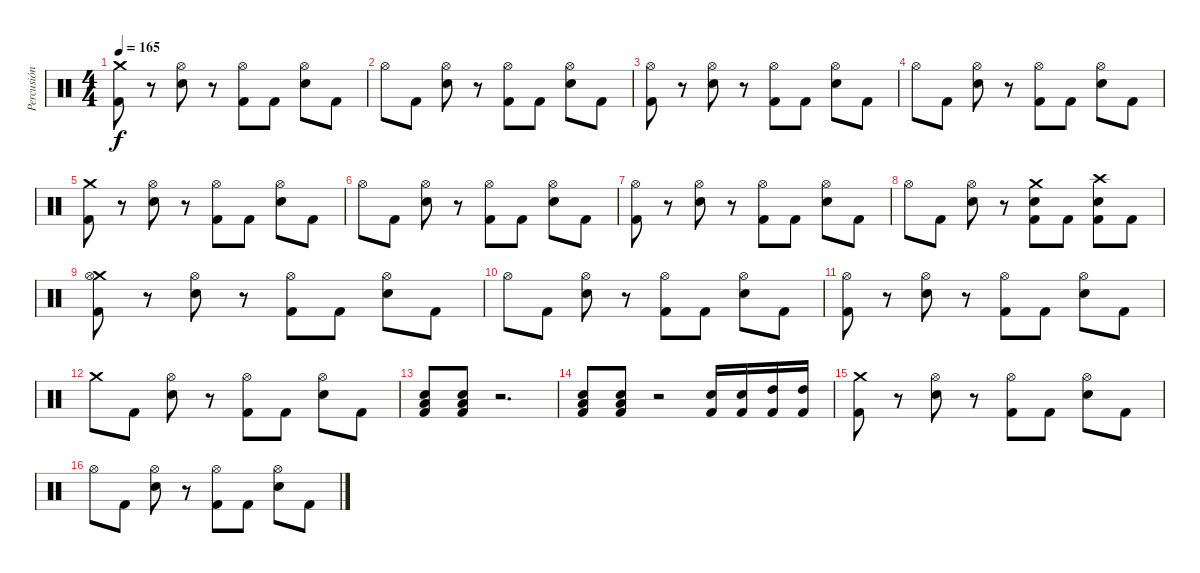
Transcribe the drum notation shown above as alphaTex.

\track ("Percusión" "Percusión") {instrument percussion}
\staff {score}
\articulation defaults
\ts (4 4)
\tempo 165
\clef neutral
\ks c
("Crash medium (hit)" "Kick (hit) 2").8{dy f} r.8 ("Hi-Hat (open)" "Electric Snare (hit)").8 r.8 ("Hi-Hat (open)" "Kick (hit) 2").8 "Kick (hit) 2".8 ("Hi-Hat (open)" "Electric Snare (hit)").8 "Kick (hit) 2".8 |
"Hi-Hat (open)".8 "Kick (hit) 2".8 ("Hi-Hat (open)" "Electric Snare (hit)").8 r.8 ("Hi-Hat (open)" "Kick (hit) 2").8 "Kick (hit) 2".8 ("Hi-Hat (open)" "Electric Snare (hit)").8 "Kick (hit) 2".8 |
("Hi-Hat (open)" "Kick (hit) 2").8 r.8 ("Hi-Hat (open)" "Electric Snare (hit)").8 r.8 ("Hi-Hat (open)" "Kick (hit) 2").8 "Kick (hit) 2".8 ("Hi-Hat (open)" "Electric Snare (hit)").8 "Kick (hit) 2".8 |
"Hi-Hat (open)".8 "Kick (hit) 2".8 ("Hi-Hat (open)" "Electric Snare (hit)").8 r.8 ("Hi-Hat (open)" "Kick (hit) 2").8 "Kick (hit) 2".8 ("Hi-Hat (open)" "Electric Snare (hit)").8 "Kick (hit) 2".8 |
("Crash medium (hit)" "Kick (hit) 2").8 r.8 ("Hi-Hat (open)" "Electric Snare (hit)").8 r.8 ("Hi-Hat (open)" "Kick (hit) 2").8 "Kick (hit) 2".8 ("Hi-Hat (open)" "Electric Snare (hit)").8 "Kick (hit) 2".8 |
"Hi-Hat (open)".8 "Kick (hit) 2".8 ("Hi-Hat (open)" "Electric Snare (hit)").8 r.8 ("Hi-Hat (open)" "Kick (hit) 2").8 "Kick (hit) 2".8 ("Hi-Hat (open)" "Electric Snare (hit)").8 "Kick (hit) 2".8 |
("Hi-Hat (open)" "Kick (hit) 2").8 r.8 ("Hi-Hat (open)" "Electric Snare (hit)").8 r.8 ("Hi-Hat (open)" "Kick (hit) 2").8 "Kick (hit) 2".8 ("Hi-Hat (open)" "Electric Snare (hit)").8 "Kick (hit) 2".8 |
"Hi-Hat (open)".8 "Kick (hit) 2".8 ("Hi-Hat (open)" "Electric Snare (hit)").8 r.8 ("Crash medium (hit)" "Electric Snare (hit)" "Kick (hit) 2").8 "Kick (hit) 2".8 ("Crash high (hit)" "Electric Snare (hit)" "Kick (hit) 2").8 "Kick (hit) 2".8 |
("Crash medium (hit)" "Hi-Hat (open)" "Kick (hit) 2").8 r.8 ("Hi-Hat (open)" "Electric Snare (hit)").8 r.8 ("Hi-Hat (open)" "Kick (hit) 2").8 "Kick (hit) 2".8 ("Hi-Hat (open)" "Electric Snare (hit)").8 "Kick (hit) 2".8 |
"Hi-Hat (open)".8 "Kick (hit) 2".8 ("Hi-Hat (open)" "Electric Snare (hit)").8 r.8 ("Hi-Hat (open)" "Kick (hit) 2").8 "Kick (hit) 2".8 ("Hi-Hat (open)" "Electric Snare (hit)").8 "Kick (hit) 2".8 |
("Hi-Hat (open)" "Kick (hit) 2").8 r.8 ("Hi-Hat (open)" "Electric Snare (hit)").8 r.8 ("Hi-Hat (open)" "Kick (hit) 2").8 "Kick (hit) 2".8 ("Hi-Hat (open)" "Electric Snare (hit)").8 "Kick (hit) 2".8 |
"Crash medium (hit)".8 "Kick (hit) 2".8 ("Hi-Hat (open)" "Electric Snare (hit)").8 r.8 ("Hi-Hat (open)" "Kick (hit) 2").8 "Kick (hit) 2".8 ("Hi-Hat (open)" "Electric Snare (hit)").8 "Kick (hit) 2".8 |
("Low Tom (hit)" "Electric Snare (hit)" "Kick (hit) 2").8 ("Low Tom (hit)" "Electric Snare (hit)" "Kick (hit) 2").8 r.2{d} |
("Low Tom (hit)" "Electric Snare (hit)" "Kick (hit) 2").8 ("Low Tom (hit)" "Electric Snare (hit)" "Kick (hit) 2").8 r.2 ("Electric Snare (hit)" "Kick (hit) 2").16 ("Electric Snare (hit)" "Kick (hit) 2").16 ("High Tom (hit)" "Kick (hit) 2").16 ("High Tom (hit)" "Kick (hit) 2").16 |
("Crash medium (hit)" "Kick (hit) 2").8 r.8 ("Hi-Hat (open)" "Electric Snare (hit)").8 r.8 ("Hi-Hat (open)" "Kick (hit) 2").8 "Kick (hit) 2".8 ("Hi-Hat (open)" "Electric Snare (hit)").8 "Kick (hit) 2".8 |
"Hi-Hat (open)".8 "Kick (hit) 2".8 ("Hi-Hat (open)" "Electric Snare (hit)").8 r.8 ("Hi-Hat (open)" "Kick (hit) 2").8 "Kick (hit) 2".8 ("Hi-Hat (open)" "Electric Snare (hit)").8 "Kick (hit) 2".8
